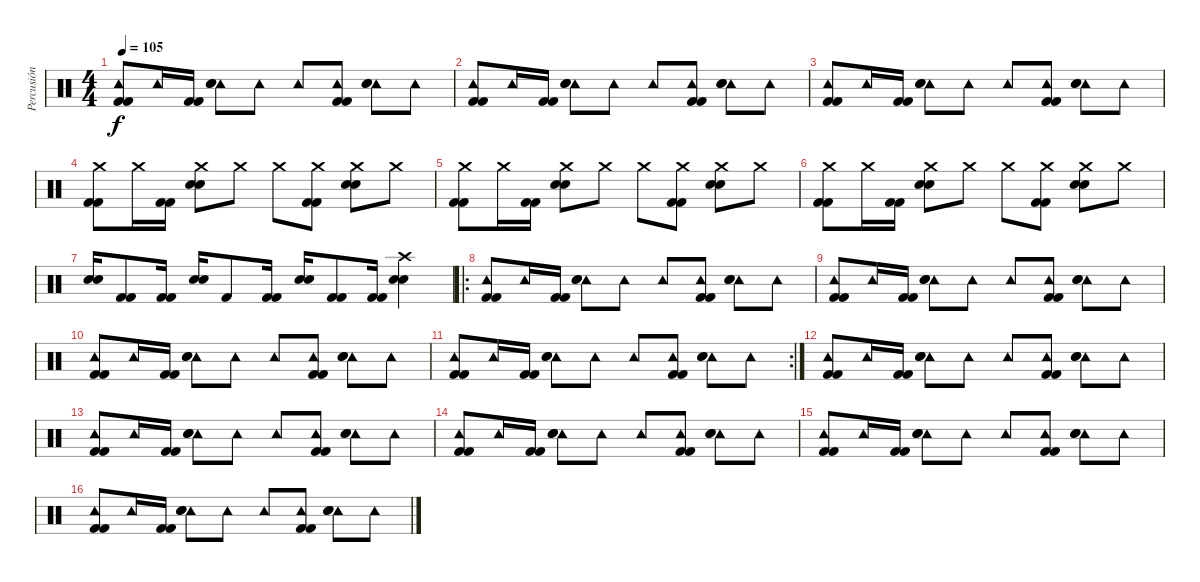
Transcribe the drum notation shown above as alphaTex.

\track ("Percusión" "Percusión") {instrument percussion}
\staff {score}
\articulation defaults
\ts (4 4)
\tempo 105
\clef neutral
\ks c
("Tambourine (hit)" "Kick (hit) 2" "Kick (hit) 2").8{dy f} "Tambourine (hit)".16 ("Kick (hit) 2" "Kick (hit) 2").16 ("Tambourine (hit)" "Electric Snare (hit)" "Electric Snare (hit)").8 "Tambourine (hit)".8 "Tambourine (hit)".8 ("Tambourine (hit)" "Kick (hit) 2" "Kick (hit) 2").8 ("Tambourine (hit)" "Electric Snare (hit)" "Electric Snare (hit)").8 "Tambourine (hit)".8 |
("Tambourine (hit)" "Kick (hit) 2" "Kick (hit) 2").8 "Tambourine (hit)".16 ("Kick (hit) 2" "Kick (hit) 2").16 ("Tambourine (hit)" "Electric Snare (hit)" "Electric Snare (hit)").8 "Tambourine (hit)".8 "Tambourine (hit)".8 ("Tambourine (hit)" "Kick (hit) 2" "Kick (hit) 2").8 ("Tambourine (hit)" "Electric Snare (hit)" "Electric Snare (hit)").8 "Tambourine (hit)".8 |
("Tambourine (hit)" "Kick (hit) 2" "Kick (hit) 2").8 "Tambourine (hit)".16 ("Kick (hit) 2" "Kick (hit) 2").16 ("Tambourine (hit)" "Electric Snare (hit)" "Electric Snare (hit)").8 "Tambourine (hit)".8 "Tambourine (hit)".8 ("Tambourine (hit)" "Kick (hit) 2" "Kick (hit) 2").8 ("Tambourine (hit)" "Electric Snare (hit)" "Electric Snare (hit)").8 "Tambourine (hit)".8 |
("Crash medium (hit)" "Kick (hit) 2" "Kick (hit) 2").8 "Crash medium (hit)".16 ("Kick (hit) 2" "Kick (hit) 2").16 ("Crash medium (hit)" "Electric Snare (hit)" "Electric Snare (hit)").8 "Crash medium (hit)".8 "Crash medium (hit)".8 ("Crash medium (hit)" "Kick (hit) 2" "Kick (hit) 2").8 ("Crash medium (hit)" "Electric Snare (hit)" "Electric Snare (hit)").8 "Crash medium (hit)".8 |
("Crash medium (hit)" "Kick (hit) 2" "Kick (hit) 2").8 "Crash medium (hit)".16 ("Kick (hit) 2" "Kick (hit) 2").16 ("Crash medium (hit)" "Electric Snare (hit)" "Electric Snare (hit)").8 "Crash medium (hit)".8 "Crash medium (hit)".8 ("Crash medium (hit)" "Kick (hit) 2" "Kick (hit) 2").8 ("Crash medium (hit)" "Electric Snare (hit)" "Electric Snare (hit)").8 "Crash medium (hit)".8 |
("Crash medium (hit)" "Kick (hit) 2" "Kick (hit) 2").8 "Crash medium (hit)".16 ("Kick (hit) 2" "Kick (hit) 2").16 ("Crash medium (hit)" "Electric Snare (hit)" "Electric Snare (hit)").8 "Crash medium (hit)".8 "Crash medium (hit)".8 ("Crash medium (hit)" "Kick (hit) 2" "Kick (hit) 2").8 ("Crash medium (hit)" "Electric Snare (hit)" "Electric Snare (hit)").8 "Crash medium (hit)".8 |
("Electric Snare (hit)" "Electric Snare (hit)").16 ("Kick (hit) 2" "Kick (hit) 2").8 ("Kick (hit) 2" "Kick (hit) 2").16 ("Electric Snare (hit)" "Electric Snare (hit)").16 "Kick (hit) 2".8 ("Kick (hit) 2" "Kick (hit) 2").16 ("Electric Snare (hit)" "Electric Snare (hit)").16 ("Kick (hit) 2" "Kick (hit) 2").8 ("Kick (hit) 2" "Kick (hit) 2").16 ("Crash high (hit)" "Electric Snare (hit)" "Electric Snare (hit)").4 |
\ro
("Tambourine (hit)" "Kick (hit) 2" "Kick (hit) 2").8 "Tambourine (hit)".16 ("Kick (hit) 2" "Kick (hit) 2").16 ("Tambourine (hit)" "Electric Snare (hit)" "Electric Snare (hit)").8 "Tambourine (hit)".8 "Tambourine (hit)".8 ("Tambourine (hit)" "Kick (hit) 2" "Kick (hit) 2").8 ("Tambourine (hit)" "Electric Snare (hit)" "Electric Snare (hit)").8 "Tambourine (hit)".8 |
("Tambourine (hit)" "Kick (hit) 2" "Kick (hit) 2").8 "Tambourine (hit)".16 ("Kick (hit) 2" "Kick (hit) 2").16 ("Tambourine (hit)" "Electric Snare (hit)" "Electric Snare (hit)").8 "Tambourine (hit)".8 "Tambourine (hit)".8 ("Tambourine (hit)" "Kick (hit) 2" "Kick (hit) 2").8 ("Tambourine (hit)" "Electric Snare (hit)" "Electric Snare (hit)").8 "Tambourine (hit)".8 |
("Tambourine (hit)" "Kick (hit) 2" "Kick (hit) 2").8 "Tambourine (hit)".16 ("Kick (hit) 2" "Kick (hit) 2").16 ("Tambourine (hit)" "Electric Snare (hit)" "Electric Snare (hit)").8 "Tambourine (hit)".8 "Tambourine (hit)".8 ("Tambourine (hit)" "Kick (hit) 2" "Kick (hit) 2").8 ("Tambourine (hit)" "Electric Snare (hit)" "Electric Snare (hit)").8 "Tambourine (hit)".8 |
\rc 2
("Tambourine (hit)" "Kick (hit) 2" "Kick (hit) 2").8 "Tambourine (hit)".16 ("Kick (hit) 2" "Kick (hit) 2").16 ("Tambourine (hit)" "Electric Snare (hit)" "Electric Snare (hit)").8 "Tambourine (hit)".8 "Tambourine (hit)".8 ("Tambourine (hit)" "Kick (hit) 2" "Kick (hit) 2").8 ("Tambourine (hit)" "Electric Snare (hit)" "Electric Snare (hit)").8 "Tambourine (hit)".8 |
("Tambourine (hit)" "Kick (hit) 2" "Kick (hit) 2").8 "Tambourine (hit)".16 ("Kick (hit) 2" "Kick (hit) 2").16 ("Tambourine (hit)" "Electric Snare (hit)" "Electric Snare (hit)").8 "Tambourine (hit)".8 "Tambourine (hit)".8 ("Tambourine (hit)" "Kick (hit) 2" "Kick (hit) 2").8 ("Tambourine (hit)" "Electric Snare (hit)" "Electric Snare (hit)").8 "Tambourine (hit)".8 |
("Tambourine (hit)" "Kick (hit) 2" "Kick (hit) 2").8 "Tambourine (hit)".16 ("Kick (hit) 2" "Kick (hit) 2").16 ("Tambourine (hit)" "Electric Snare (hit)" "Electric Snare (hit)").8 "Tambourine (hit)".8 "Tambourine (hit)".8 ("Tambourine (hit)" "Kick (hit) 2" "Kick (hit) 2").8 ("Tambourine (hit)" "Electric Snare (hit)" "Electric Snare (hit)").8 "Tambourine (hit)".8 |
("Tambourine (hit)" "Kick (hit) 2" "Kick (hit) 2").8 "Tambourine (hit)".16 ("Kick (hit) 2" "Kick (hit) 2").16 ("Tambourine (hit)" "Electric Snare (hit)" "Electric Snare (hit)").8 "Tambourine (hit)".8 "Tambourine (hit)".8 ("Tambourine (hit)" "Kick (hit) 2" "Kick (hit) 2").8 ("Tambourine (hit)" "Electric Snare (hit)" "Electric Snare (hit)").8 "Tambourine (hit)".8 |
("Tambourine (hit)" "Kick (hit) 2" "Kick (hit) 2").8 "Tambourine (hit)".16 ("Kick (hit) 2" "Kick (hit) 2").16 ("Tambourine (hit)" "Electric Snare (hit)" "Electric Snare (hit)").8 "Tambourine (hit)".8 "Tambourine (hit)".8 ("Tambourine (hit)" "Kick (hit) 2" "Kick (hit) 2").8 ("Tambourine (hit)" "Electric Snare (hit)" "Electric Snare (hit)").8 "Tambourine (hit)".8 |
("Tambourine (hit)" "Kick (hit) 2" "Kick (hit) 2").8 "Tambourine (hit)".16 ("Kick (hit) 2" "Kick (hit) 2").16 ("Tambourine (hit)" "Electric Snare (hit)" "Electric Snare (hit)").8 "Tambourine (hit)".8 "Tambourine (hit)".8 ("Tambourine (hit)" "Kick (hit) 2" "Kick (hit) 2").8 ("Tambourine (hit)" "Electric Snare (hit)" "Electric Snare (hit)").8 "Tambourine (hit)".8
